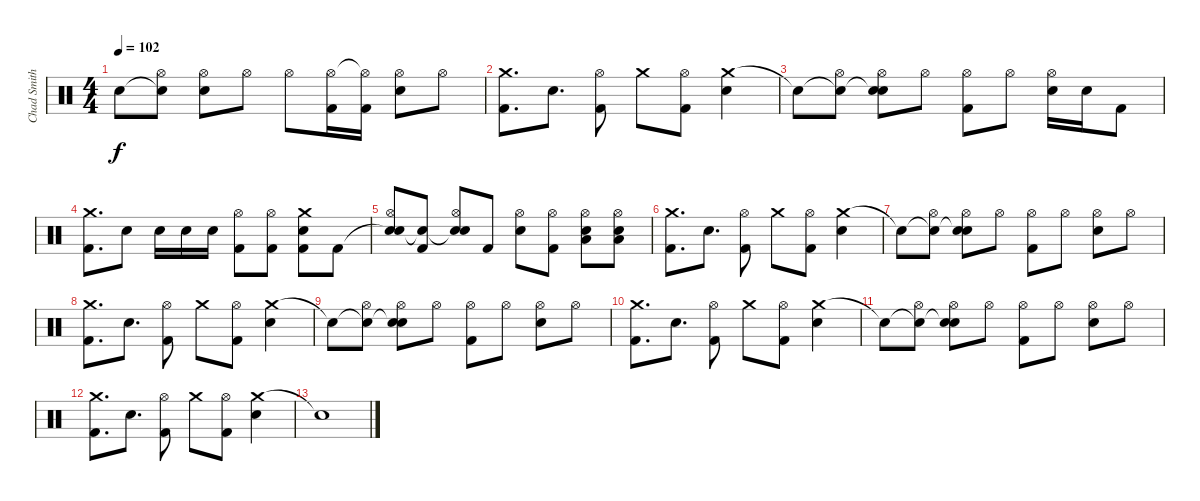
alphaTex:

\track ("Chad Smith (Batterie)" "Chad Smith") {instrument percussion}
\staff {score}
\articulation defaults
\ts (4 4)
\tempo 102
\clef neutral
\ks c "Snare (hit)"{t}.8{dy f}
("Snare (hit)"{t} "Hi-Hat (open)").8 ("Hi-Hat (open)" "Electric Snare (hit)").8 "Hi-Hat (open)".8 "Hi-Hat (open)".8 ("Hi-Hat (open)" "Kick (hit) 2").16 ("Hi-Hat (open)"{t} "Kick (hit) 2").16 ("Hi-Hat (open)" "Electric Snare (hit)").8 "Hi-Hat (open)".8 |
("Crash medium (hit)" "Kick (hit) 2").8{d} "Electric Snare (hit)".8{d} ("Hi-Hat (open)" "Kick (hit) 2").8 "Crash medium (hit)".8 ("Hi-Hat (open)" "Kick (hit) 2").8 ("Crash medium (hit)" "Electric Snare (hit)").4 |
"Snare (hit)"{t}.8 ("Snare (hit)"{t} "Hi-Hat (open)").8 ("Snare (hit)"{t} "Hi-Hat (open)" "Electric Snare (hit)").8 "Hi-Hat (open)".8 ("Hi-Hat (open)" "Kick (hit) 2").8 "Hi-Hat (open)".8 ("Hi-Hat (open)" "Electric Snare (hit)").16 "Electric Snare (hit)".16 "Kick (hit) 2".8 |
("Crash medium (hit)" "Kick (hit) 2").8{d} "Electric Snare (hit)".8 "Electric Snare (hit)".16 "Electric Snare (hit)".16 "Electric Snare (hit)".16 ("Hi-Hat (open)" "Kick (hit) 2").8 ("Hi-Hat (open)" "Kick (hit) 2").8 ("Crash medium (hit)" "Electric Snare (hit)" "Kick (hit) 2").8 "Kick (hit) 2".8 |
("Snare (hit)"{t} "Hi-Hat (open)" "Electric Snare (hit)").8 ("Snare (hit)"{t} "Kick (hit) 2").8 ("Snare (hit)"{t} "Hi-Hat (open)" "Electric Snare (hit)").8 "Kick (hit) 2".8 ("Hi-Hat (open)" "Electric Snare (hit)").8 ("Hi-Hat (open)" "Kick (hit) 2").8 ("Hi-Hat (open)" "Low Tom (hit)" "Electric Snare (hit)").8 ("Hi-Hat (open)" "Low Tom (hit)" "Electric Snare (hit)").8 |
("Crash medium (hit)" "Kick (hit) 2").8{d} "Electric Snare (hit)".8{d} ("Hi-Hat (open)" "Kick (hit) 2").8 "Crash medium (hit)".8 ("Hi-Hat (open)" "Kick (hit) 2").8 ("Crash medium (hit)" "Electric Snare (hit)").4 |
"Snare (hit)"{t}.8 ("Snare (hit)"{t} "Hi-Hat (open)").8 ("Snare (hit)"{t} "Hi-Hat (open)" "Electric Snare (hit)").8 "Hi-Hat (open)".8 ("Hi-Hat (open)" "Kick (hit) 2").8 "Hi-Hat (open)".8 ("Hi-Hat (open)" "Electric Snare (hit)").8 "Hi-Hat (open)".8 |
("Crash medium (hit)" "Kick (hit) 2").8{d} "Electric Snare (hit)".8{d} ("Hi-Hat (open)" "Kick (hit) 2").8 "Crash medium (hit)".8 ("Hi-Hat (open)" "Kick (hit) 2").8 ("Crash medium (hit)" "Electric Snare (hit)").4 |
"Snare (hit)"{t}.8 ("Snare (hit)"{t} "Hi-Hat (open)").8 ("Snare (hit)"{t} "Hi-Hat (open)" "Electric Snare (hit)").8 "Hi-Hat (open)".8 ("Hi-Hat (open)" "Kick (hit) 2").8 "Hi-Hat (open)".8 ("Hi-Hat (open)" "Electric Snare (hit)").8 "Hi-Hat (open)".8 |
("Crash medium (hit)" "Kick (hit) 2").8{d} "Electric Snare (hit)".8{d} ("Hi-Hat (open)" "Kick (hit) 2").8 "Crash medium (hit)".8 ("Hi-Hat (open)" "Kick (hit) 2").8 ("Crash medium (hit)" "Electric Snare (hit)").4 |
"Snare (hit)"{t}.8 ("Snare (hit)"{t} "Hi-Hat (open)").8 ("Snare (hit)"{t} "Hi-Hat (open)" "Electric Snare (hit)").8 "Hi-Hat (open)".8 ("Hi-Hat (open)" "Kick (hit) 2").8 "Hi-Hat (open)".8 ("Hi-Hat (open)" "Electric Snare (hit)").8 "Hi-Hat (open)".8 |
("Crash medium (hit)" "Kick (hit) 2").8{d} "Electric Snare (hit)".8{d} ("Hi-Hat (open)" "Kick (hit) 2").8 "Crash medium (hit)".8 ("Hi-Hat (open)" "Kick (hit) 2").8 ("Crash medium (hit)" "Electric Snare (hit)").4 |
"Snare (hit)"{t}.1
